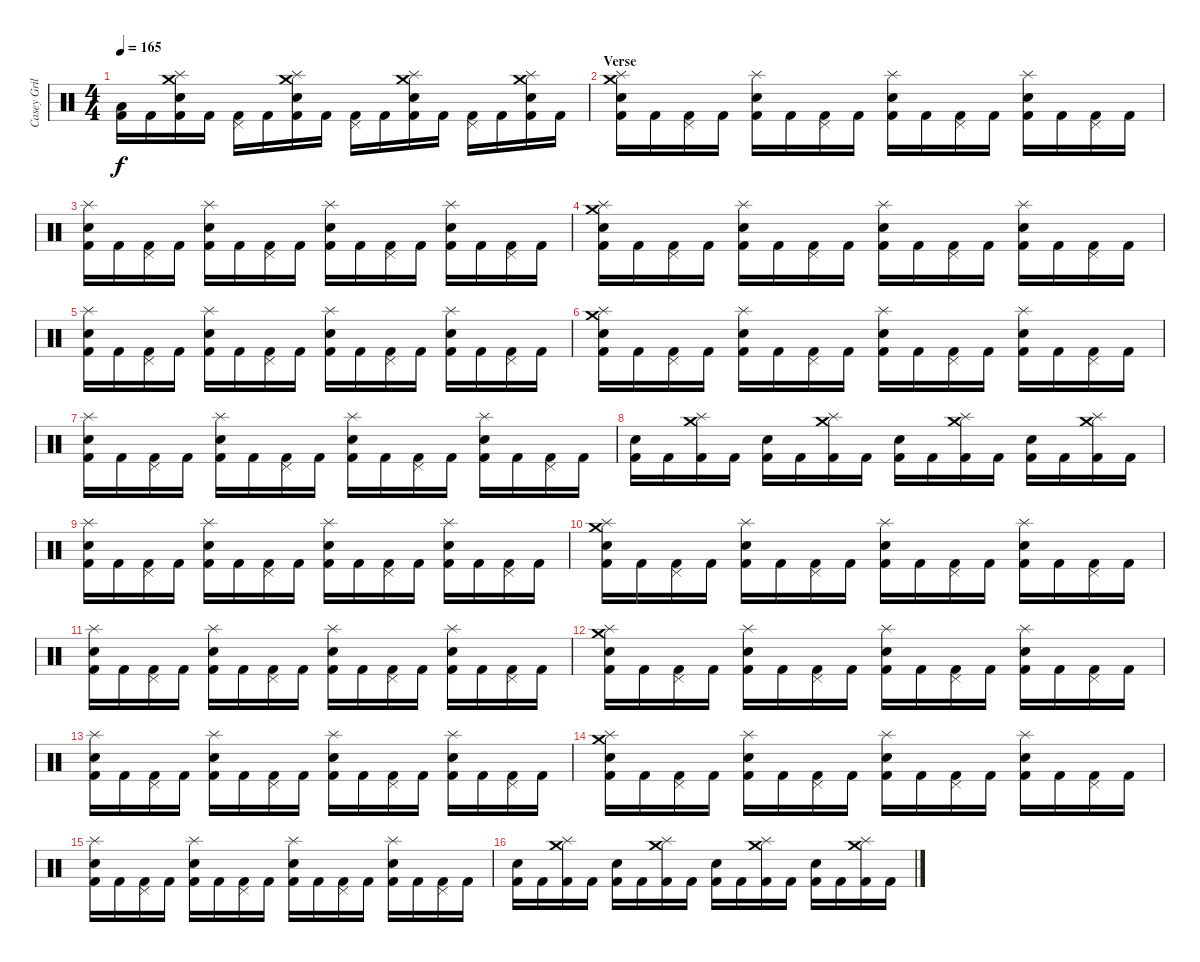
\track ("Casey Grillo" "Casey Gril") {instrument percussion}
\staff {score}
\articulation defaults
\ts (4 4)
\tempo 165
\clef neutral
\ks c
("Low Floor Tom (hit)" "Kick (hit) 2").16{dy f} "Kick (hit) 2".16 ("Electric Snare (hit)" "Crash medium (hit)" "Splash (hit)" "Kick (hit) 2").16 "Kick (hit) 2".16 ("Pedal Hi-Hat (hit)" "Kick (hit) 2").16 "Kick (hit) 2".16 ("Electric Snare (hit)" "Splash (hit)" "Crash medium (hit)" "Kick (hit) 2").16 "Kick (hit) 2".16 ("Pedal Hi-Hat (hit)" "Kick (hit) 2").16 "Kick (hit) 2".16 ("Electric Snare (hit)" "Splash (hit)" "Crash medium (hit)" "Kick (hit) 2").16 "Kick (hit) 2".16 ("Pedal Hi-Hat (hit)" "Kick (hit) 2").16 "Kick (hit) 2".16 ("Electric Snare (hit)" "Crash medium (hit)" "Splash (hit)" "Kick (hit) 2").16 "Kick (hit) 2".16 |
\section ("" "Verse")
("Electric Snare (hit)" "Splash (hit)" "Crash medium (hit)" "Kick (hit) 2").16 "Kick (hit) 2".16 ("Pedal Hi-Hat (hit)" "Kick (hit) 2").16 "Kick (hit) 2".16 ("Electric Snare (hit)" "Splash (hit)" "Kick (hit) 2").16 "Kick (hit) 2".16 ("Pedal Hi-Hat (hit)" "Kick (hit) 2").16 "Kick (hit) 2".16 ("Electric Snare (hit)" "Splash (hit)" "Kick (hit) 2").16 "Kick (hit) 2".16 ("Pedal Hi-Hat (hit)" "Kick (hit) 2").16 "Kick (hit) 2".16 ("Electric Snare (hit)" "Splash (hit)" "Kick (hit) 2").16 "Kick (hit) 2".16 ("Pedal Hi-Hat (hit)" "Kick (hit) 2").16 "Kick (hit) 2".16 |
("Electric Snare (hit)" "Splash (hit)" "Kick (hit) 2").16 "Kick (hit) 2".16 ("Pedal Hi-Hat (hit)" "Kick (hit) 2").16 "Kick (hit) 2".16 ("Electric Snare (hit)" "Splash (hit)" "Kick (hit) 2").16 "Kick (hit) 2".16 ("Pedal Hi-Hat (hit)" "Kick (hit) 2").16 "Kick (hit) 2".16 ("Electric Snare (hit)" "Splash (hit)" "Kick (hit) 2").16 "Kick (hit) 2".16 ("Pedal Hi-Hat (hit)" "Kick (hit) 2").16 "Kick (hit) 2".16 ("Electric Snare (hit)" "Splash (hit)" "Kick (hit) 2").16 "Kick (hit) 2".16 ("Pedal Hi-Hat (hit)" "Kick (hit) 2").16 "Kick (hit) 2".16 |
("Electric Snare (hit)" "Splash (hit)" "Crash medium (hit)" "Kick (hit) 2").16 "Kick (hit) 2".16 ("Pedal Hi-Hat (hit)" "Kick (hit) 2").16 "Kick (hit) 2".16 ("Electric Snare (hit)" "Splash (hit)" "Kick (hit) 2").16 "Kick (hit) 2".16 ("Pedal Hi-Hat (hit)" "Kick (hit) 2").16 "Kick (hit) 2".16 ("Electric Snare (hit)" "Splash (hit)" "Kick (hit) 2").16 "Kick (hit) 2".16 ("Pedal Hi-Hat (hit)" "Kick (hit) 2").16 "Kick (hit) 2".16 ("Electric Snare (hit)" "Splash (hit)" "Kick (hit) 2").16 "Kick (hit) 2".16 ("Pedal Hi-Hat (hit)" "Kick (hit) 2").16 "Kick (hit) 2".16 |
("Electric Snare (hit)" "Splash (hit)" "Kick (hit) 2").16 "Kick (hit) 2".16 ("Pedal Hi-Hat (hit)" "Kick (hit) 2").16 "Kick (hit) 2".16 ("Electric Snare (hit)" "Splash (hit)" "Kick (hit) 2").16 "Kick (hit) 2".16 ("Pedal Hi-Hat (hit)" "Kick (hit) 2").16 "Kick (hit) 2".16 ("Electric Snare (hit)" "Splash (hit)" "Kick (hit) 2").16 "Kick (hit) 2".16 ("Pedal Hi-Hat (hit)" "Kick (hit) 2").16 "Kick (hit) 2".16 ("Electric Snare (hit)" "Splash (hit)" "Kick (hit) 2").16 "Kick (hit) 2".16 ("Pedal Hi-Hat (hit)" "Kick (hit) 2").16 "Kick (hit) 2".16 |
("Electric Snare (hit)" "Splash (hit)" "Crash medium (hit)" "Kick (hit) 2").16 "Kick (hit) 2".16 ("Pedal Hi-Hat (hit)" "Kick (hit) 2").16 "Kick (hit) 2".16 ("Electric Snare (hit)" "Splash (hit)" "Kick (hit) 2").16 "Kick (hit) 2".16 ("Pedal Hi-Hat (hit)" "Kick (hit) 2").16 "Kick (hit) 2".16 ("Electric Snare (hit)" "Splash (hit)" "Kick (hit) 2").16 "Kick (hit) 2".16 ("Pedal Hi-Hat (hit)" "Kick (hit) 2").16 "Kick (hit) 2".16 ("Electric Snare (hit)" "Splash (hit)" "Kick (hit) 2").16 "Kick (hit) 2".16 ("Pedal Hi-Hat (hit)" "Kick (hit) 2").16 "Kick (hit) 2".16 |
("Electric Snare (hit)" "Splash (hit)" "Kick (hit) 2").16 "Kick (hit) 2".16 ("Pedal Hi-Hat (hit)" "Kick (hit) 2").16 "Kick (hit) 2".16 ("Electric Snare (hit)" "Splash (hit)" "Kick (hit) 2").16 "Kick (hit) 2".16 ("Pedal Hi-Hat (hit)" "Kick (hit) 2").16 "Kick (hit) 2".16 ("Electric Snare (hit)" "Splash (hit)" "Kick (hit) 2").16 "Kick (hit) 2".16 ("Pedal Hi-Hat (hit)" "Kick (hit) 2").16 "Kick (hit) 2".16 ("Electric Snare (hit)" "Splash (hit)" "Kick (hit) 2").16 "Kick (hit) 2".16 ("Pedal Hi-Hat (hit)" "Kick (hit) 2").16 "Kick (hit) 2".16 |
("Electric Snare (hit)" "Kick (hit) 2").16 "Kick (hit) 2".16 ("Crash medium (hit)" "Splash (hit)" "Kick (hit) 2").16 "Kick (hit) 2".16 ("Electric Snare (hit)" "Kick (hit) 2").16 "Kick (hit) 2".16 ("Splash (hit)" "Crash medium (hit)" "Kick (hit) 2").16 "Kick (hit) 2".16 ("Electric Snare (hit)" "Kick (hit) 2").16 "Kick (hit) 2".16 ("Splash (hit)" "Crash medium (hit)" "Kick (hit) 2").16 "Kick (hit) 2".16 ("Electric Snare (hit)" "Kick (hit) 2").16 "Kick (hit) 2".16 ("Crash medium (hit)" "Splash (hit)" "Kick (hit) 2").16 "Kick (hit) 2".16 |
("Electric Snare (hit)" "Splash (hit)" "Kick (hit) 2").16 "Kick (hit) 2".16 ("Pedal Hi-Hat (hit)" "Kick (hit) 2").16 "Kick (hit) 2".16 ("Electric Snare (hit)" "Splash (hit)" "Kick (hit) 2").16 "Kick (hit) 2".16 ("Pedal Hi-Hat (hit)" "Kick (hit) 2").16 "Kick (hit) 2".16 ("Electric Snare (hit)" "Splash (hit)" "Kick (hit) 2").16 "Kick (hit) 2".16 ("Pedal Hi-Hat (hit)" "Kick (hit) 2").16 "Kick (hit) 2".16 ("Electric Snare (hit)" "Splash (hit)" "Kick (hit) 2").16 "Kick (hit) 2".16 ("Pedal Hi-Hat (hit)" "Kick (hit) 2").16 "Kick (hit) 2".16 |
("Electric Snare (hit)" "Splash (hit)" "Crash medium (hit)" "Kick (hit) 2").16 "Kick (hit) 2".16 ("Pedal Hi-Hat (hit)" "Kick (hit) 2").16 "Kick (hit) 2".16 ("Electric Snare (hit)" "Splash (hit)" "Kick (hit) 2").16 "Kick (hit) 2".16 ("Pedal Hi-Hat (hit)" "Kick (hit) 2").16 "Kick (hit) 2".16 ("Electric Snare (hit)" "Splash (hit)" "Kick (hit) 2").16 "Kick (hit) 2".16 ("Pedal Hi-Hat (hit)" "Kick (hit) 2").16 "Kick (hit) 2".16 ("Electric Snare (hit)" "Splash (hit)" "Kick (hit) 2").16 "Kick (hit) 2".16 ("Pedal Hi-Hat (hit)" "Kick (hit) 2").16 "Kick (hit) 2".16 |
("Electric Snare (hit)" "Splash (hit)" "Kick (hit) 2").16 "Kick (hit) 2".16 ("Pedal Hi-Hat (hit)" "Kick (hit) 2").16 "Kick (hit) 2".16 ("Electric Snare (hit)" "Splash (hit)" "Kick (hit) 2").16 "Kick (hit) 2".16 ("Pedal Hi-Hat (hit)" "Kick (hit) 2").16 "Kick (hit) 2".16 ("Electric Snare (hit)" "Splash (hit)" "Kick (hit) 2").16 "Kick (hit) 2".16 ("Pedal Hi-Hat (hit)" "Kick (hit) 2").16 "Kick (hit) 2".16 ("Electric Snare (hit)" "Splash (hit)" "Kick (hit) 2").16 "Kick (hit) 2".16 ("Pedal Hi-Hat (hit)" "Kick (hit) 2").16 "Kick (hit) 2".16 |
("Electric Snare (hit)" "Splash (hit)" "Crash medium (hit)" "Kick (hit) 2").16 "Kick (hit) 2".16 ("Pedal Hi-Hat (hit)" "Kick (hit) 2").16 "Kick (hit) 2".16 ("Electric Snare (hit)" "Splash (hit)" "Kick (hit) 2").16 "Kick (hit) 2".16 ("Pedal Hi-Hat (hit)" "Kick (hit) 2").16 "Kick (hit) 2".16 ("Electric Snare (hit)" "Splash (hit)" "Kick (hit) 2").16 "Kick (hit) 2".16 ("Pedal Hi-Hat (hit)" "Kick (hit) 2").16 "Kick (hit) 2".16 ("Electric Snare (hit)" "Splash (hit)" "Kick (hit) 2").16 "Kick (hit) 2".16 ("Pedal Hi-Hat (hit)" "Kick (hit) 2").16 "Kick (hit) 2".16 |
("Electric Snare (hit)" "Splash (hit)" "Kick (hit) 2").16 "Kick (hit) 2".16 ("Pedal Hi-Hat (hit)" "Kick (hit) 2").16 "Kick (hit) 2".16 ("Electric Snare (hit)" "Splash (hit)" "Kick (hit) 2").16 "Kick (hit) 2".16 ("Pedal Hi-Hat (hit)" "Kick (hit) 2").16 "Kick (hit) 2".16 ("Electric Snare (hit)" "Splash (hit)" "Kick (hit) 2").16 "Kick (hit) 2".16 ("Pedal Hi-Hat (hit)" "Kick (hit) 2").16 "Kick (hit) 2".16 ("Electric Snare (hit)" "Splash (hit)" "Kick (hit) 2").16 "Kick (hit) 2".16 ("Pedal Hi-Hat (hit)" "Kick (hit) 2").16 "Kick (hit) 2".16 |
("Electric Snare (hit)" "Splash (hit)" "Crash medium (hit)" "Kick (hit) 2").16 "Kick (hit) 2".16 ("Pedal Hi-Hat (hit)" "Kick (hit) 2").16 "Kick (hit) 2".16 ("Electric Snare (hit)" "Splash (hit)" "Kick (hit) 2").16 "Kick (hit) 2".16 ("Pedal Hi-Hat (hit)" "Kick (hit) 2").16 "Kick (hit) 2".16 ("Electric Snare (hit)" "Splash (hit)" "Kick (hit) 2").16 "Kick (hit) 2".16 ("Pedal Hi-Hat (hit)" "Kick (hit) 2").16 "Kick (hit) 2".16 ("Electric Snare (hit)" "Splash (hit)" "Kick (hit) 2").16 "Kick (hit) 2".16 ("Pedal Hi-Hat (hit)" "Kick (hit) 2").16 "Kick (hit) 2".16 |
("Electric Snare (hit)" "Splash (hit)" "Kick (hit) 2").16 "Kick (hit) 2".16 ("Pedal Hi-Hat (hit)" "Kick (hit) 2").16 "Kick (hit) 2".16 ("Electric Snare (hit)" "Splash (hit)" "Kick (hit) 2").16 "Kick (hit) 2".16 ("Pedal Hi-Hat (hit)" "Kick (hit) 2").16 "Kick (hit) 2".16 ("Electric Snare (hit)" "Splash (hit)" "Kick (hit) 2").16 "Kick (hit) 2".16 ("Pedal Hi-Hat (hit)" "Kick (hit) 2").16 "Kick (hit) 2".16 ("Electric Snare (hit)" "Splash (hit)" "Kick (hit) 2").16 "Kick (hit) 2".16 ("Pedal Hi-Hat (hit)" "Kick (hit) 2").16 "Kick (hit) 2".16 |
("Electric Snare (hit)" "Kick (hit) 2").16 "Kick (hit) 2".16 ("Crash medium (hit)" "Splash (hit)" "Kick (hit) 2").16 "Kick (hit) 2".16 ("Electric Snare (hit)" "Kick (hit) 2").16 "Kick (hit) 2".16 ("Splash (hit)" "Crash medium (hit)" "Kick (hit) 2").16 "Kick (hit) 2".16 ("Electric Snare (hit)" "Kick (hit) 2").16 "Kick (hit) 2".16 ("Splash (hit)" "Crash medium (hit)" "Kick (hit) 2").16 "Kick (hit) 2".16 ("Electric Snare (hit)" "Kick (hit) 2").16 "Kick (hit) 2".16 ("Crash medium (hit)" "Splash (hit)" "Kick (hit) 2").16 "Kick (hit) 2".16
